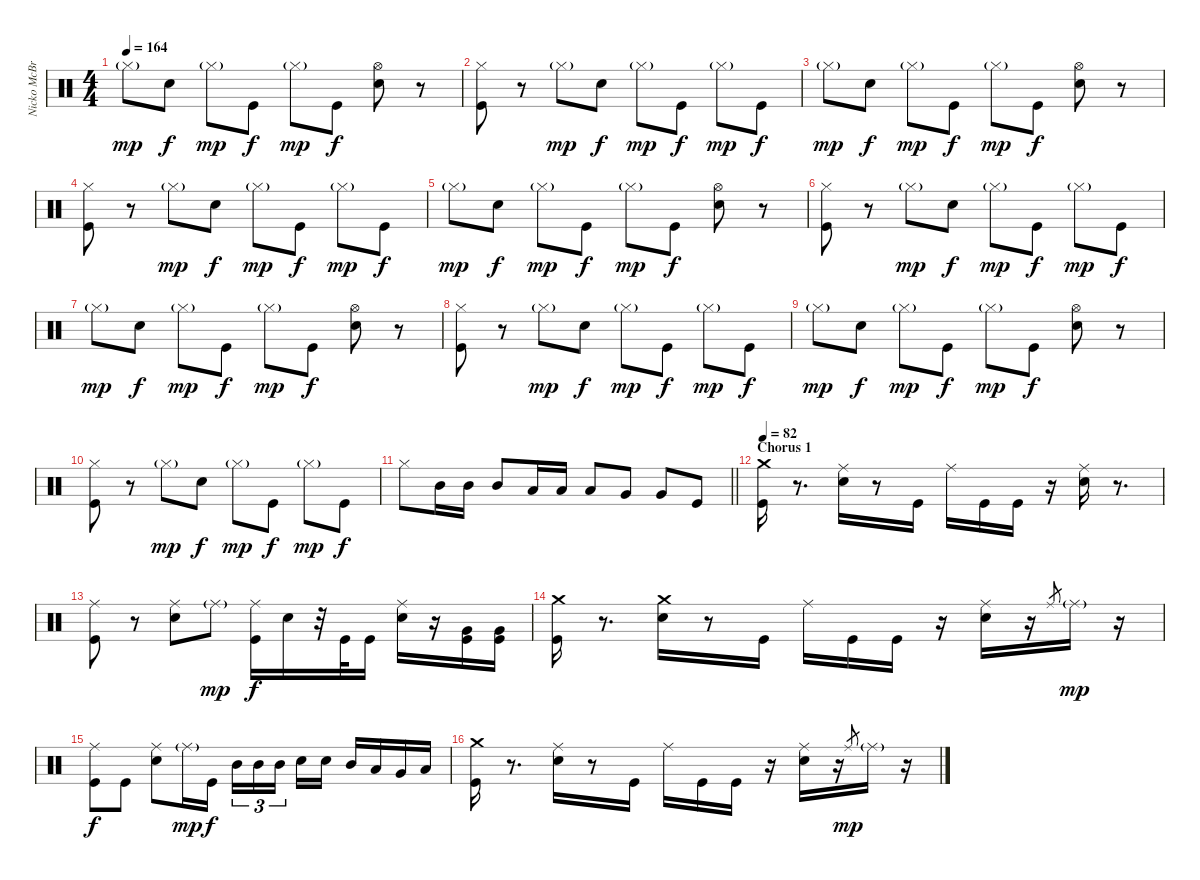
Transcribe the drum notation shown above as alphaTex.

\track ("Nicko McBrain" "Nicko McBr") {instrument percussion}
\staff {score}
\articulation defaults
\ts (4 4)
\tempo 164
\clef neutral
\ks c "Hi-Hat (closed)"{g}.8{dy mp} "Electric Snare (hit)".8{dy f} "Hi-Hat (closed)"{g}.8{dy mp} "Kick (hit)".8{dy f} "Hi-Hat (closed)"{g}.8{dy mp} "Kick (hit)".8{dy f}
("Hi-Hat (open)" "Electric Snare (hit)").8 r.8 |
("Hi-Hat (closed)" "Kick (hit)").8 r.8 "Hi-Hat (closed)"{g}.8{dy mp} "Electric Snare (hit)".8{dy f} "Hi-Hat (closed)"{g}.8{dy mp} "Kick (hit)".8{dy f} "Hi-Hat (closed)"{g}.8{dy mp} "Kick (hit)".8{dy f} |
"Hi-Hat (closed)"{g}.8{dy mp} "Electric Snare (hit)".8{dy f} "Hi-Hat (closed)"{g}.8{dy mp} "Kick (hit)".8{dy f} "Hi-Hat (closed)"{g}.8{dy mp} "Kick (hit)".8{dy f} ("Hi-Hat (open)" "Electric Snare (hit)").8 r.8 |
("Hi-Hat (closed)" "Kick (hit)").8 r.8 "Hi-Hat (closed)"{g}.8{dy mp} "Electric Snare (hit)".8{dy f} "Hi-Hat (closed)"{g}.8{dy mp} "Kick (hit)".8{dy f} "Hi-Hat (closed)"{g}.8{dy mp} "Kick (hit)".8{dy f} |
"Hi-Hat (closed)"{g}.8{dy mp} "Electric Snare (hit)".8{dy f} "Hi-Hat (closed)"{g}.8{dy mp} "Kick (hit)".8{dy f} "Hi-Hat (closed)"{g}.8{dy mp} "Kick (hit)".8{dy f} ("Hi-Hat (open)" "Electric Snare (hit)").8 r.8 |
("Hi-Hat (closed)" "Kick (hit)").8 r.8 "Hi-Hat (closed)"{g}.8{dy mp} "Electric Snare (hit)".8{dy f} "Hi-Hat (closed)"{g}.8{dy mp} "Kick (hit)".8{dy f} "Hi-Hat (closed)"{g}.8{dy mp} "Kick (hit)".8{dy f} |
"Hi-Hat (closed)"{g}.8{dy mp} "Electric Snare (hit)".8{dy f} "Hi-Hat (closed)"{g}.8{dy mp} "Kick (hit)".8{dy f} "Hi-Hat (closed)"{g}.8{dy mp} "Kick (hit)".8{dy f} ("Hi-Hat (open)" "Electric Snare (hit)").8 r.8 |
("Hi-Hat (closed)" "Kick (hit)").8 r.8 "Hi-Hat (closed)"{g}.8{dy mp} "Electric Snare (hit)".8{dy f} "Hi-Hat (closed)"{g}.8{dy mp} "Kick (hit)".8{dy f} "Hi-Hat (closed)"{g}.8{dy mp} "Kick (hit)".8{dy f} |
"Hi-Hat (closed)"{g}.8{dy mp} "Electric Snare (hit)".8{dy f} "Hi-Hat (closed)"{g}.8{dy mp} "Kick (hit)".8{dy f} "Hi-Hat (closed)"{g}.8{dy mp} "Kick (hit)".8{dy f} ("Hi-Hat (open)" "Electric Snare (hit)").8 r.8 |
("Hi-Hat (closed)" "Kick (hit)").8 r.8 "Hi-Hat (closed)"{g}.8{dy mp} "Electric Snare (hit)".8{dy f} "Hi-Hat (closed)"{g}.8{dy mp} "Kick (hit)".8{dy f} "Hi-Hat (closed)"{g}.8{dy mp} "Kick (hit)".8{dy f} |
\barLineRight lightlight "Hi-Hat (closed)".8 "Mid Tom (hit)".16 "Mid Tom (hit)".16 "Mid Tom (hit)".8 "Low Tom (hit)".16 "Low Tom (hit)".16 "Low Tom (hit)".8 "Very Low Tom (hit)".8 "Very Low Tom (hit)".8 "Kick (hit)".8
|
\section ("" "Chorus 1")
\tempo 82
("Crash medium (hit)" "Kick (hit)").16 r.8{d} ("Ride (middle)" "Electric Snare (hit)").16 r.8 "Kick (hit)".16 "Ride (middle)".16 "Kick (hit)".16 "Kick (hit)".16 r.16 ("Ride (middle)" "Electric Snare (hit)").16 r.8{d} |
("Ride (middle)" "Kick (hit)").8 r.8 ("Ride (middle)" "Electric Snare (hit)").8 "Ride (middle)"{g}.8{dy mp} ("Ride (middle)" "Kick (hit)").16{dy f} "Electric Snare (hit)".16 r.32 "Kick (hit)".32 "Kick (hit)".16 ("Ride (middle)" "Electric Snare (hit)").16 r.16 ("Very Low Tom (hit)" "Kick (hit)").16 ("Very Low Tom (hit)" "Kick (hit)").16 |
("Crash medium (hit)" "Kick (hit)").16 r.8{d} ("Crash medium (hit)" "Electric Snare (hit)").16 r.8 "Kick (hit)".16 "Ride (middle)".16 "Kick (hit)".16 "Kick (hit)".16 r.16 ("Ride (middle)" "Electric Snare (hit)").16 r.16 "Ride (middle)".8{gr} "Ride (middle)"{g}.16{dy mp} r.16 |
("Ride (middle)" "Kick (hit)").8{dy f} "Kick (hit)".8 ("Ride (middle)" "Electric Snare (hit)").8 "Ride (middle)"{g}.16{dy mp} "Kick (hit)".16{dy f} "Mid Tom (hit)".16{tu (3 2)} "Mid Tom (hit)".16{tu (3 2)} "Mid Tom (hit)".16{tu (3 2) beam splitsecondary} "Electric Snare (hit)".16 "Electric Snare (hit)".16 "Mid Tom (hit)".16 "Low Tom (hit)".16 "Very Low Tom (hit)".16 "Low Floor Tom (hit)".16 |
("Crash medium (hit)" "Kick (hit)").16 r.8{d} ("Ride (middle)" "Electric Snare (hit)").16 r.8 "Kick (hit)".16 "Ride (middle)".16 "Kick (hit)".16 "Kick (hit)".16 r.16 ("Ride (middle)" "Electric Snare (hit)").16 r.16 "Ride (middle)".8{gr dy mp} "Ride (middle)"{g}.16 r.16
